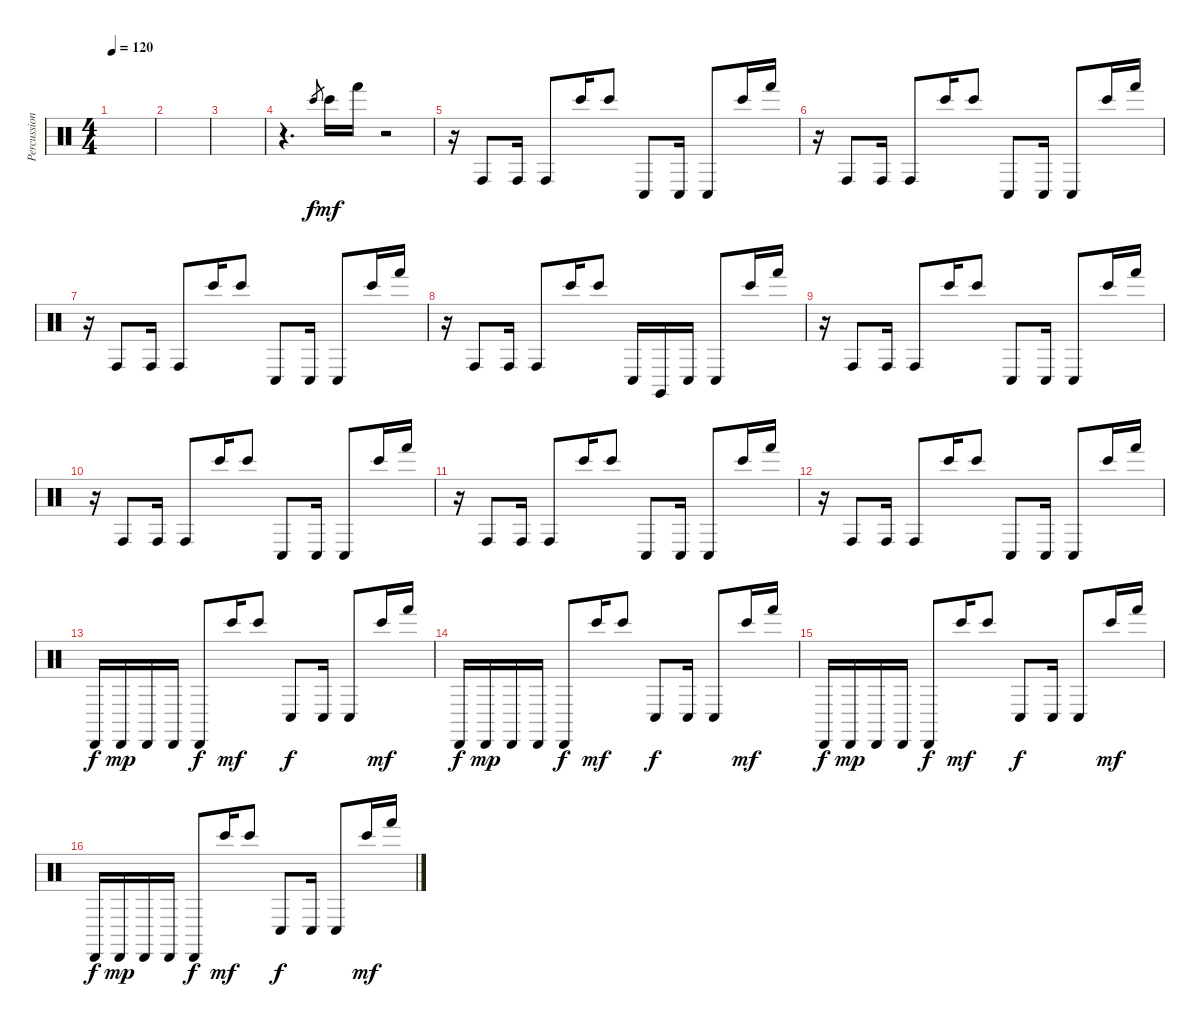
\track ("Percussions" "Percussion") {instrument percussion}
\staff {score}
\articulation defaults
\ts (4 4)
\tempo 120
\clef neutral
\ks c
|
|
|
r.4{d} "Bongo High (hit)".8{gr} "Bongo High (hit)".16{dy mf} "Hand (hit)".16 r.2 |
r.16 "Conga high (hit)".8 "Conga high (hit)".16 "Conga high (hit)".8 "Bongo High (hit)".16 "Bongo High (hit)".8 "Conga low (hit)".8 "Conga low (hit)".16 "Conga low (hit)".8 "Bongo High (hit)".16 "Hand (hit)".16 |
r.16 "Conga high (hit)".8 "Conga high (hit)".16 "Conga high (hit)".8 "Bongo High (hit)".16 "Bongo High (hit)".8 "Conga low (hit)".8 "Conga low (hit)".16 "Conga low (hit)".8 "Bongo High (hit)".16 "Hand (hit)".16 |
r.16 "Conga high (hit)".8 "Conga high (hit)".16 "Conga high (hit)".8 "Bongo High (hit)".16 "Bongo High (hit)".8 "Conga low (hit)".8 "Conga low (hit)".16 "Conga low (hit)".8 "Bongo High (hit)".16 "Hand (hit)".16 |
r.16 "Conga high (hit)".8 "Conga high (hit)".16 "Conga high (hit)".8 "Bongo High (hit)".16 "Bongo High (hit)".8 "Conga low (hit)".16 "Claves (hit)".16 "Conga low (hit)".16 "Conga low (hit)".8 "Bongo High (hit)".16 "Hand (hit)".16 |
r.16 "Conga high (hit)".8 "Conga high (hit)".16 "Conga high (hit)".8 "Bongo High (hit)".16 "Bongo High (hit)".8 "Conga low (hit)".8 "Conga low (hit)".16 "Conga low (hit)".8 "Bongo High (hit)".16 "Hand (hit)".16 |
r.16 "Conga high (hit)".8 "Conga high (hit)".16 "Conga high (hit)".8 "Bongo High (hit)".16 "Bongo High (hit)".8 "Conga low (hit)".8 "Conga low (hit)".16 "Conga low (hit)".8 "Bongo High (hit)".16 "Hand (hit)".16 |
r.16 "Conga high (hit)".8 "Conga high (hit)".16 "Conga high (hit)".8 "Bongo High (hit)".16 "Bongo High (hit)".8 "Conga low (hit)".8 "Conga low (hit)".16 "Conga low (hit)".8 "Bongo High (hit)".16 "Hand (hit)".16 |
r.16 "Conga high (hit)".8 "Conga high (hit)".16 "Conga high (hit)".8 "Bongo High (hit)".16 "Bongo High (hit)".8 "Conga low (hit)".8 "Conga low (hit)".16 "Conga low (hit)".8 "Bongo High (hit)".16 "Hand (hit)".16 |
"Cabasa (hit)".16{dy f} "Cabasa (hit)".16{dy mp} "Cabasa (hit)".16 "Cabasa (hit)".16 "Cabasa (hit)".8{dy f} "Bongo High (hit)".16{dy mf} "Bongo High (hit)".8 "Conga low (hit)".8{dy f} "Conga low (hit)".16 "Conga low (hit)".8 "Bongo High (hit)".16{dy mf} "Hand (hit)".16 |
"Cabasa (hit)".16{dy f} "Cabasa (hit)".16{dy mp} "Cabasa (hit)".16 "Cabasa (hit)".16 "Cabasa (hit)".8{dy f} "Bongo High (hit)".16{dy mf} "Bongo High (hit)".8 "Conga low (hit)".8{dy f} "Conga low (hit)".16 "Conga low (hit)".8 "Bongo High (hit)".16{dy mf} "Hand (hit)".16 |
"Cabasa (hit)".16{dy f} "Cabasa (hit)".16{dy mp} "Cabasa (hit)".16 "Cabasa (hit)".16 "Cabasa (hit)".8{dy f} "Bongo High (hit)".16{dy mf} "Bongo High (hit)".8 "Conga low (hit)".8{dy f} "Conga low (hit)".16 "Conga low (hit)".8 "Bongo High (hit)".16{dy mf} "Hand (hit)".16 |
"Cabasa (hit)".16{dy f} "Cabasa (hit)".16{dy mp} "Cabasa (hit)".16 "Cabasa (hit)".16 "Cabasa (hit)".8{dy f} "Bongo High (hit)".16{dy mf} "Bongo High (hit)".8 "Conga low (hit)".8{dy f} "Conga low (hit)".16 "Conga low (hit)".8 "Bongo High (hit)".16{dy mf} "Hand (hit)".16
